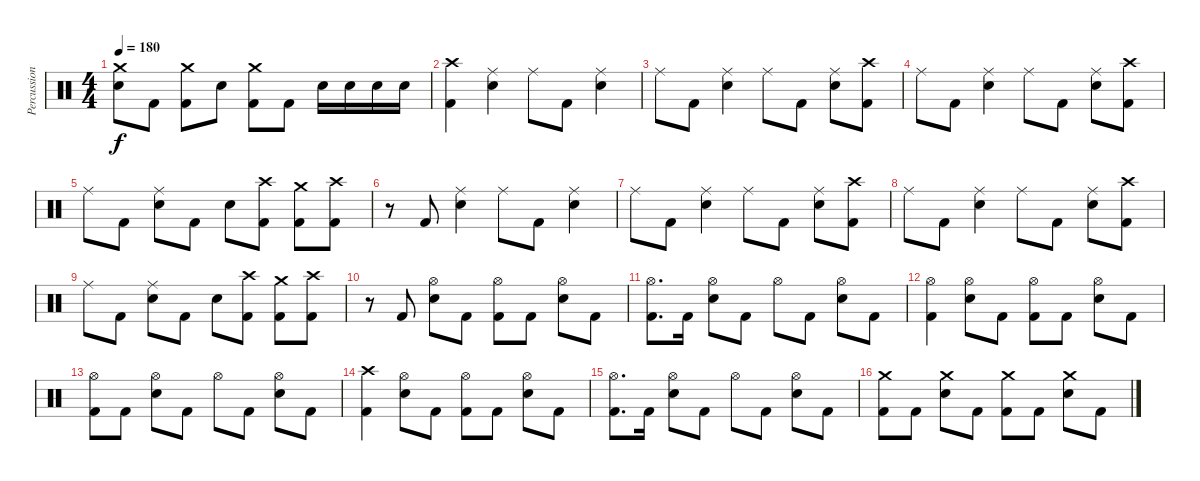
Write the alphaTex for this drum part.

\track ("Percussion" "Percussion") {instrument percussion}
\staff {score}
\articulation defaults
\ts (4 4)
\tempo 180
\clef neutral
\ks c
("Crash medium (hit)" "Electric Snare (hit)").8{dy f} "Kick (hit) 2".8 ("Crash medium (hit)" "Kick (hit) 2").8 "Electric Snare (hit)".8 ("Crash medium (hit)" "Kick (hit) 2").8 "Kick (hit) 2".8 "Electric Snare (hit)".16 "Electric Snare (hit)".16 "Electric Snare (hit)".16 "Electric Snare (hit)".16 |
("Crash high (hit)" "Kick (hit) 2").4 ("Ride (middle)" "Electric Snare (hit)").4 "Ride (middle)".8 "Kick (hit) 2".8 ("Ride (middle)" "Electric Snare (hit)").4 |
"Ride (middle)".8 "Kick (hit) 2".8 ("Ride (middle)" "Electric Snare (hit)").4 "Ride (middle)".8 "Kick (hit) 2".8 ("Ride (middle)" "Electric Snare (hit)").8 ("Crash high (hit)" "Kick (hit) 2").8 |
"Ride (middle)".8 "Kick (hit) 2".8 ("Ride (middle)" "Electric Snare (hit)").4 "Ride (middle)".8 "Kick (hit) 2".8 ("Ride (middle)" "Electric Snare (hit)").8 ("Crash high (hit)" "Kick (hit) 2").8 |
"Ride (middle)".8 "Kick (hit) 2".8 ("Ride (middle)" "Electric Snare (hit)").8 "Kick (hit) 2".8 "Electric Snare (hit)".8 ("Crash high (hit)" "Kick (hit) 2").8 ("Crash medium (hit)" "Kick (hit) 2").8 ("Crash high (hit)" "Kick (hit) 2").8 |
r.8 "Kick (hit) 2".8 ("Ride (middle)" "Electric Snare (hit)").4 "Ride (middle)".8 "Kick (hit) 2".8 ("Ride (middle)" "Electric Snare (hit)").4 |
"Ride (middle)".8 "Kick (hit) 2".8 ("Ride (middle)" "Electric Snare (hit)").4 "Ride (middle)".8 "Kick (hit) 2".8 ("Ride (middle)" "Electric Snare (hit)").8 ("Crash high (hit)" "Kick (hit) 2").8 |
"Ride (middle)".8 "Kick (hit) 2".8 ("Ride (middle)" "Electric Snare (hit)").4 "Ride (middle)".8 "Kick (hit) 2".8 ("Ride (middle)" "Electric Snare (hit)").8 ("Crash high (hit)" "Kick (hit) 2").8 |
"Ride (middle)".8 "Kick (hit) 2".8 ("Ride (middle)" "Electric Snare (hit)").8 "Kick (hit) 2".8 "Electric Snare (hit)".8 ("Crash high (hit)" "Kick (hit) 2").8 ("Crash medium (hit)" "Kick (hit) 2").8 ("Crash high (hit)" "Kick (hit) 2").8 |
r.8 "Kick (hit) 2".8 ("Hi-Hat (open)" "Electric Snare (hit)").8 "Kick (hit) 2".8 ("Hi-Hat (open)" "Kick (hit) 2").8 "Kick (hit) 2".8 ("Hi-Hat (open)" "Electric Snare (hit)").8 "Kick (hit) 2".8 |
("Hi-Hat (open)" "Kick (hit) 2").8{d} "Kick (hit) 2".16 ("Hi-Hat (open)" "Electric Snare (hit)").8 "Kick (hit) 2".8 "Hi-Hat (open)".8 "Kick (hit) 2".8 ("Hi-Hat (open)" "Electric Snare (hit)").8 "Kick (hit) 2".8 |
("Hi-Hat (open)" "Kick (hit) 2").4 ("Hi-Hat (open)" "Electric Snare (hit)").8 "Kick (hit) 2".8 ("Hi-Hat (open)" "Kick (hit) 2").8 "Kick (hit) 2".8 ("Hi-Hat (open)" "Electric Snare (hit)").8 "Kick (hit) 2".8 |
("Hi-Hat (open)" "Kick (hit) 2").8 "Kick (hit) 2".8 ("Hi-Hat (open)" "Electric Snare (hit)").8 "Kick (hit) 2".8 "Hi-Hat (open)".8 "Kick (hit) 2".8 ("Hi-Hat (open)" "Electric Snare (hit)").8 "Kick (hit) 2".8 |
("Crash high (hit)" "Kick (hit) 2").4 ("Hi-Hat (open)" "Electric Snare (hit)").8 "Kick (hit) 2".8 ("Hi-Hat (open)" "Kick (hit) 2").8 "Kick (hit) 2".8 ("Hi-Hat (open)" "Electric Snare (hit)").8 "Kick (hit) 2".8 |
("Hi-Hat (open)" "Kick (hit) 2").8{d} "Kick (hit) 2".16 ("Hi-Hat (open)" "Electric Snare (hit)").8 "Kick (hit) 2".8 "Hi-Hat (open)".8 "Kick (hit) 2".8 ("Hi-Hat (open)" "Electric Snare (hit)").8 "Kick (hit) 2".8 |
("Crash medium (hit)" "Kick (hit) 2").8 "Kick (hit) 2".8 ("Crash medium (hit)" "Electric Snare (hit)").8 "Kick (hit) 2".8 ("Crash medium (hit)" "Kick (hit) 2").8 "Kick (hit) 2".8 ("Crash medium (hit)" "Electric Snare (hit)").8 "Kick (hit) 2".8
